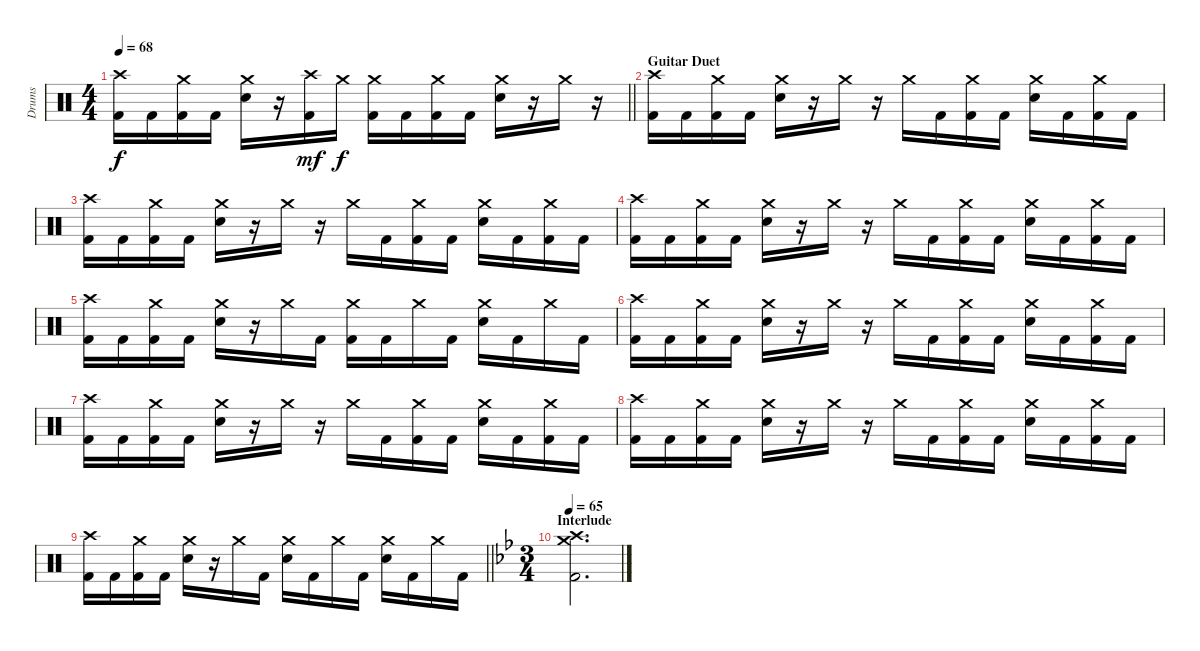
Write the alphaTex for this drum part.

\track ("Drums" "Drums") {instrument percussion}
\staff {score}
\articulation defaults
\ts (4 4)
\tempo 68
\clef neutral
\barLineRight lightlight
\ks c
("Crash high (hit)" "Kick (hit) 2").16{dy f} "Kick (hit) 2".16 ("Crash medium (hit)" "Kick (hit) 2").16 "Kick (hit) 2".16 ("Crash medium (hit)" "Electric Snare (hit)").16 r.16 ("Crash high (hit)" "Kick (hit) 2").16{dy mf} "Crash medium (hit)".16{dy f} ("Crash medium (hit)" "Kick (hit) 2").16 "Kick (hit) 2".16 ("Crash medium (hit)" "Kick (hit) 2").16 "Kick (hit) 2".16 ("Crash medium (hit)" "Electric Snare (hit)").16 r.16 "Crash medium (hit)".16 r.16 |
\section ("" "Guitar Duet")
("Crash high (hit)" "Kick (hit) 2").16 "Kick (hit) 2".16 ("Crash medium (hit)" "Kick (hit) 2").16 "Kick (hit) 2".16 ("Crash medium (hit)" "Electric Snare (hit)").16 r.16 "Crash medium (hit)".16 r.16 "Crash medium (hit)".16 "Kick (hit) 2".16 ("Crash medium (hit)" "Kick (hit) 2").16 "Kick (hit) 2".16 ("Crash medium (hit)" "Electric Snare (hit)").16 "Kick (hit) 2".16 ("Crash medium (hit)" "Kick (hit) 2").16 "Kick (hit) 2".16 |
("Crash high (hit)" "Kick (hit) 2").16 "Kick (hit) 2".16 ("Crash medium (hit)" "Kick (hit) 2").16 "Kick (hit) 2".16 ("Crash medium (hit)" "Electric Snare (hit)").16 r.16 "Crash medium (hit)".16 r.16 "Crash medium (hit)".16 "Kick (hit) 2".16 ("Crash medium (hit)" "Kick (hit) 2").16 "Kick (hit) 2".16 ("Crash medium (hit)" "Electric Snare (hit)").16 "Kick (hit) 2".16 ("Crash medium (hit)" "Kick (hit) 2").16 "Kick (hit) 2".16 |
("Crash high (hit)" "Kick (hit) 2").16 "Kick (hit) 2".16 ("Crash medium (hit)" "Kick (hit) 2").16 "Kick (hit) 2".16 ("Crash medium (hit)" "Electric Snare (hit)").16 r.16 "Crash medium (hit)".16 r.16 "Crash medium (hit)".16 "Kick (hit) 2".16 ("Crash medium (hit)" "Kick (hit) 2").16 "Kick (hit) 2".16 ("Crash medium (hit)" "Electric Snare (hit)").16 "Kick (hit) 2".16 ("Crash medium (hit)" "Kick (hit) 2").16 "Kick (hit) 2".16 |
("Crash high (hit)" "Kick (hit) 2").16 "Kick (hit) 2".16 ("Crash medium (hit)" "Kick (hit) 2").16 "Kick (hit) 2".16 ("Crash medium (hit)" "Electric Snare (hit)").16 r.16 "Crash medium (hit)".16 "Kick (hit) 2".16 ("Crash medium (hit)" "Kick (hit) 2").16 "Kick (hit) 2".16 "Crash medium (hit)".16 "Kick (hit) 2".16 ("Crash medium (hit)" "Electric Snare (hit)").16 "Kick (hit) 2".16 "Crash medium (hit)".16 "Kick (hit) 2".16 |
("Crash high (hit)" "Kick (hit) 2").16 "Kick (hit) 2".16 ("Crash medium (hit)" "Kick (hit) 2").16 "Kick (hit) 2".16 ("Crash medium (hit)" "Electric Snare (hit)").16 r.16 "Crash medium (hit)".16 r.16 "Crash medium (hit)".16 "Kick (hit) 2".16 ("Crash medium (hit)" "Kick (hit) 2").16 "Kick (hit) 2".16 ("Crash medium (hit)" "Electric Snare (hit)").16 "Kick (hit) 2".16 ("Crash medium (hit)" "Kick (hit) 2").16 "Kick (hit) 2".16 |
("Crash high (hit)" "Kick (hit) 2").16 "Kick (hit) 2".16 ("Crash medium (hit)" "Kick (hit) 2").16 "Kick (hit) 2".16 ("Crash medium (hit)" "Electric Snare (hit)").16 r.16 "Crash medium (hit)".16 r.16 "Crash medium (hit)".16 "Kick (hit) 2".16 ("Crash medium (hit)" "Kick (hit) 2").16 "Kick (hit) 2".16 ("Crash medium (hit)" "Electric Snare (hit)").16 "Kick (hit) 2".16 ("Crash medium (hit)" "Kick (hit) 2").16 "Kick (hit) 2".16 |
("Crash high (hit)" "Kick (hit) 2").16 "Kick (hit) 2".16 ("Crash medium (hit)" "Kick (hit) 2").16 "Kick (hit) 2".16 ("Crash medium (hit)" "Electric Snare (hit)").16 r.16 "Crash medium (hit)".16 r.16 "Crash medium (hit)".16 "Kick (hit) 2".16 ("Crash medium (hit)" "Kick (hit) 2").16 "Kick (hit) 2".16 ("Crash medium (hit)" "Electric Snare (hit)").16 "Kick (hit) 2".16 ("Crash medium (hit)" "Kick (hit) 2").16 "Kick (hit) 2".16 |
\barLineRight lightlight
("Crash high (hit)" "Kick (hit) 2").16 "Kick (hit) 2".16 ("Crash medium (hit)" "Kick (hit) 2").16 "Kick (hit) 2".16 ("Crash medium (hit)" "Electric Snare (hit)").16 r.16 "Crash medium (hit)".16 "Kick (hit) 2".16 ("Crash medium (hit)" "Electric Snare (hit)").16 "Kick (hit) 2".16 "Crash medium (hit)".16 "Kick (hit) 2".16 ("Crash medium (hit)" "Electric Snare (hit)").16 "Kick (hit) 2".16 "Crash medium (hit)".16 "Kick (hit) 2".16 |
\ts (3 4)
\section ("" "Interlude")
\tempo 65
\ks bb
("Crash medium (hit)" "Crash high (hit)" "Kick (hit) 2").2{d}
